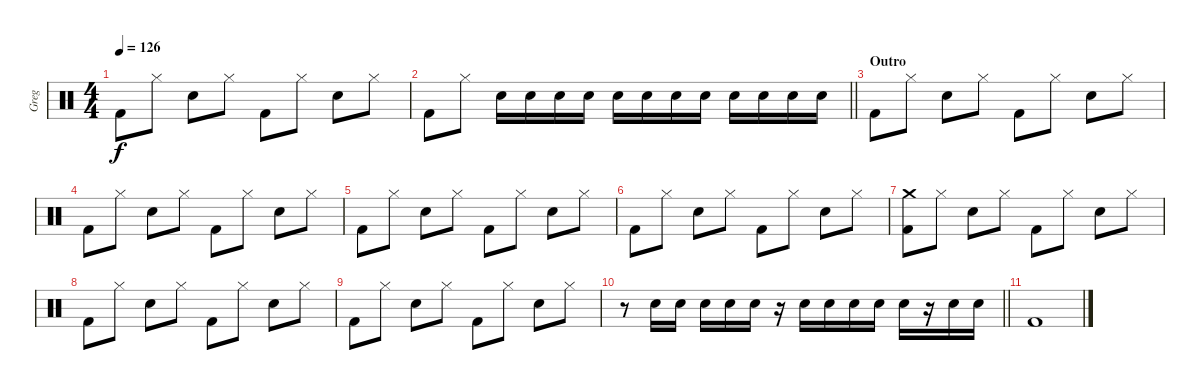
\track ("Greg" "Greg") {instrument percussion}
\staff {score}
\articulation defaults
\ts (4 4)
\tempo 126
\clef neutral
\ks c "Kick (hit) 2".8{dy f} "Hi-Hat (closed)".8 "Electric Snare (hit)".8 "Hi-Hat (closed)".8 "Kick (hit) 2".8 "Hi-Hat (closed)".8 "Electric Snare (hit)".8 "Hi-Hat (closed)".8
|
\barLineRight lightlight "Kick (hit) 2".8 "Hi-Hat (closed)".8 "Electric Snare (hit)".16 "Electric Snare (hit)".16 "Electric Snare (hit)".16 "Electric Snare (hit)".16 "Electric Snare (hit)".16 "Electric Snare (hit)".16 "Electric Snare (hit)".16 "Electric Snare (hit)".16 "Electric Snare (hit)".16 "Electric Snare (hit)".16 "Electric Snare (hit)".16 "Electric Snare (hit)".16
|
\section ("" "Outro")
"Kick (hit) 2".8 "Hi-Hat (closed)".8 "Electric Snare (hit)".8 "Hi-Hat (closed)".8 "Kick (hit) 2".8 "Hi-Hat (closed)".8 "Electric Snare (hit)".8 "Hi-Hat (closed)".8 |
"Kick (hit) 2".8 "Hi-Hat (closed)".8 "Electric Snare (hit)".8 "Hi-Hat (closed)".8 "Kick (hit) 2".8 "Hi-Hat (closed)".8 "Electric Snare (hit)".8 "Hi-Hat (closed)".8 |
"Kick (hit) 2".8 "Hi-Hat (closed)".8 "Electric Snare (hit)".8 "Hi-Hat (closed)".8 "Kick (hit) 2".8 "Hi-Hat (closed)".8 "Electric Snare (hit)".8 "Hi-Hat (closed)".8 |
"Kick (hit) 2".8 "Hi-Hat (closed)".8 "Electric Snare (hit)".8 "Hi-Hat (closed)".8 "Kick (hit) 2".8 "Hi-Hat (closed)".8 "Electric Snare (hit)".8 "Hi-Hat (closed)".8 |
("Crash medium (hit)" "Kick (hit) 2").8 "Hi-Hat (closed)".8 "Electric Snare (hit)".8 "Hi-Hat (closed)".8 "Kick (hit) 2".8 "Hi-Hat (closed)".8 "Electric Snare (hit)".8 "Hi-Hat (closed)".8 |
"Kick (hit) 2".8 "Hi-Hat (closed)".8 "Electric Snare (hit)".8 "Hi-Hat (closed)".8 "Kick (hit) 2".8 "Hi-Hat (closed)".8 "Electric Snare (hit)".8 "Hi-Hat (closed)".8 |
"Kick (hit) 2".8 "Hi-Hat (closed)".8 "Electric Snare (hit)".8 "Hi-Hat (closed)".8 "Kick (hit) 2".8 "Hi-Hat (closed)".8 "Electric Snare (hit)".8 "Hi-Hat (closed)".8 |
\barLineRight lightlight
r.8 "Electric Snare (hit)".16 "Electric Snare (hit)".16 "Electric Snare (hit)".16 "Electric Snare (hit)".16 "Electric Snare (hit)".16 r.16 "Electric Snare (hit)".16 "Electric Snare (hit)".16 "Electric Snare (hit)".16 "Electric Snare (hit)".16 "Electric Snare (hit)".16 r.16 "Electric Snare (hit)".16 "Electric Snare (hit)".16 |
"Kick (hit) 2".1
